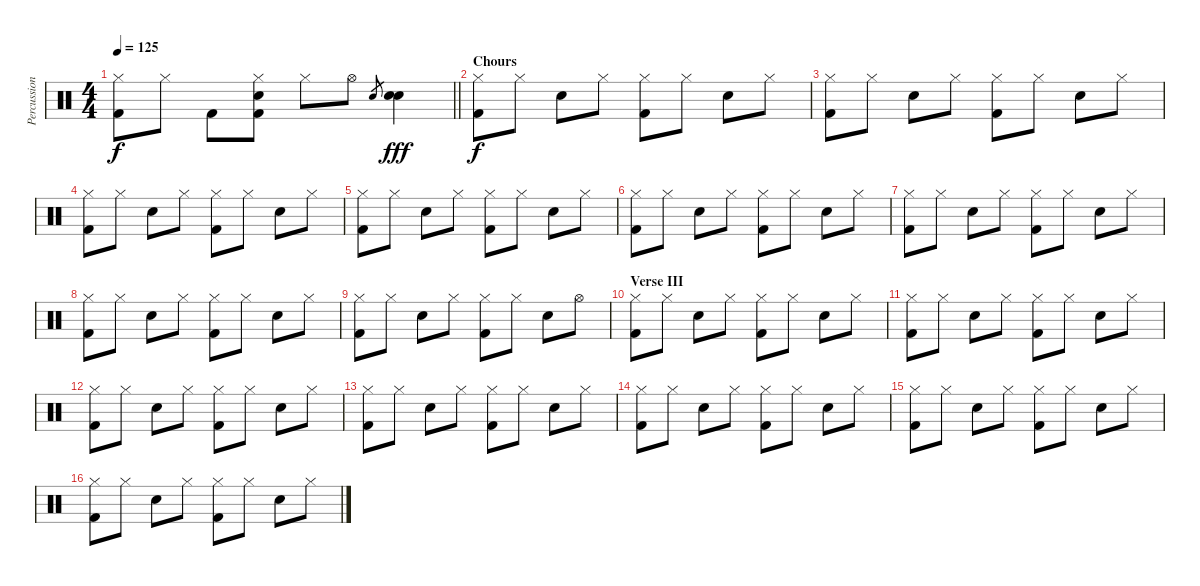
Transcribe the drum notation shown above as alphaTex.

\track ("Percussion" "Percussion") {instrument percussion}
\staff {score}
\articulation defaults
\ts (4 4)
\tempo 125
\clef neutral
\barLineRight lightlight
\ks c
("Hi-Hat (closed)" "Kick (hit) 2").8{dy f} "Hi-Hat (closed)".8 "Kick (hit) 2".8 ("Electric Snare (hit)" "Hi-Hat (closed)" "Kick (hit) 2").8 "Hi-Hat (closed)".8 "Hi-Hat (open)".8 "Electric Snare (hit)".8{gr} ("Electric Snare (hit)" "Electric Snare (hit)").4{dy fff} |
\section ("" "Chours")
("Hi-Hat (closed)" "Kick (hit) 2").8{dy f} "Hi-Hat (closed)".8 "Electric Snare (hit)".8 "Hi-Hat (closed)".8 ("Hi-Hat (closed)" "Kick (hit) 2").8 "Hi-Hat (closed)".8 "Electric Snare (hit)".8 "Hi-Hat (closed)".8 |
("Hi-Hat (closed)" "Kick (hit) 2").8 "Hi-Hat (closed)".8 "Electric Snare (hit)".8 "Hi-Hat (closed)".8 ("Hi-Hat (closed)" "Kick (hit) 2").8 "Hi-Hat (closed)".8 "Electric Snare (hit)".8 "Hi-Hat (closed)".8 |
("Hi-Hat (closed)" "Kick (hit) 2").8 "Hi-Hat (closed)".8 "Electric Snare (hit)".8 "Hi-Hat (closed)".8 ("Hi-Hat (closed)" "Kick (hit) 2").8 "Hi-Hat (closed)".8 "Electric Snare (hit)".8 "Hi-Hat (closed)".8 |
("Hi-Hat (closed)" "Kick (hit) 2").8 "Hi-Hat (closed)".8 "Electric Snare (hit)".8 "Hi-Hat (closed)".8 ("Hi-Hat (closed)" "Kick (hit) 2").8 "Hi-Hat (closed)".8 "Electric Snare (hit)".8 "Hi-Hat (closed)".8 |
("Hi-Hat (closed)" "Kick (hit) 2").8 "Hi-Hat (closed)".8 "Electric Snare (hit)".8 "Hi-Hat (closed)".8 ("Hi-Hat (closed)" "Kick (hit) 2").8 "Hi-Hat (closed)".8 "Electric Snare (hit)".8 "Hi-Hat (closed)".8 |
("Hi-Hat (closed)" "Kick (hit) 2").8 "Hi-Hat (closed)".8 "Electric Snare (hit)".8 "Hi-Hat (closed)".8 ("Hi-Hat (closed)" "Kick (hit) 2").8 "Hi-Hat (closed)".8 "Electric Snare (hit)".8 "Hi-Hat (closed)".8 |
("Hi-Hat (closed)" "Kick (hit) 2").8 "Hi-Hat (closed)".8 "Electric Snare (hit)".8 "Hi-Hat (closed)".8 ("Hi-Hat (closed)" "Kick (hit) 2").8 "Hi-Hat (closed)".8 "Electric Snare (hit)".8 "Hi-Hat (closed)".8 |
("Hi-Hat (closed)" "Kick (hit) 2").8 "Hi-Hat (closed)".8 "Electric Snare (hit)".8 "Hi-Hat (closed)".8 ("Hi-Hat (closed)" "Kick (hit) 2").8 "Hi-Hat (closed)".8 "Electric Snare (hit)".8 "Hi-Hat (open)".8 |
\section ("" "Verse III")
("Hi-Hat (closed)" "Kick (hit) 2").8 "Hi-Hat (closed)".8 "Electric Snare (hit)".8 "Hi-Hat (closed)".8 ("Hi-Hat (closed)" "Kick (hit) 2").8 "Hi-Hat (closed)".8 "Electric Snare (hit)".8 "Hi-Hat (closed)".8 |
("Hi-Hat (closed)" "Kick (hit) 2").8 "Hi-Hat (closed)".8 "Electric Snare (hit)".8 "Hi-Hat (closed)".8 ("Hi-Hat (closed)" "Kick (hit) 2").8 "Hi-Hat (closed)".8 "Electric Snare (hit)".8 "Hi-Hat (closed)".8 |
("Hi-Hat (closed)" "Kick (hit) 2").8 "Hi-Hat (closed)".8 "Electric Snare (hit)".8 "Hi-Hat (closed)".8 ("Hi-Hat (closed)" "Kick (hit) 2").8 "Hi-Hat (closed)".8 "Electric Snare (hit)".8 "Hi-Hat (closed)".8 |
("Hi-Hat (closed)" "Kick (hit) 2").8 "Hi-Hat (closed)".8 "Electric Snare (hit)".8 "Hi-Hat (closed)".8 ("Hi-Hat (closed)" "Kick (hit) 2").8 "Hi-Hat (closed)".8 "Electric Snare (hit)".8 "Hi-Hat (closed)".8 |
("Hi-Hat (closed)" "Kick (hit) 2").8 "Hi-Hat (closed)".8 "Electric Snare (hit)".8 "Hi-Hat (closed)".8 ("Hi-Hat (closed)" "Kick (hit) 2").8 "Hi-Hat (closed)".8 "Electric Snare (hit)".8 "Hi-Hat (closed)".8 |
("Hi-Hat (closed)" "Kick (hit) 2").8 "Hi-Hat (closed)".8 "Electric Snare (hit)".8 "Hi-Hat (closed)".8 ("Hi-Hat (closed)" "Kick (hit) 2").8 "Hi-Hat (closed)".8 "Electric Snare (hit)".8 "Hi-Hat (closed)".8 |
("Hi-Hat (closed)" "Kick (hit) 2").8 "Hi-Hat (closed)".8 "Electric Snare (hit)".8 "Hi-Hat (closed)".8 ("Hi-Hat (closed)" "Kick (hit) 2").8 "Hi-Hat (closed)".8 "Electric Snare (hit)".8 "Hi-Hat (closed)".8
